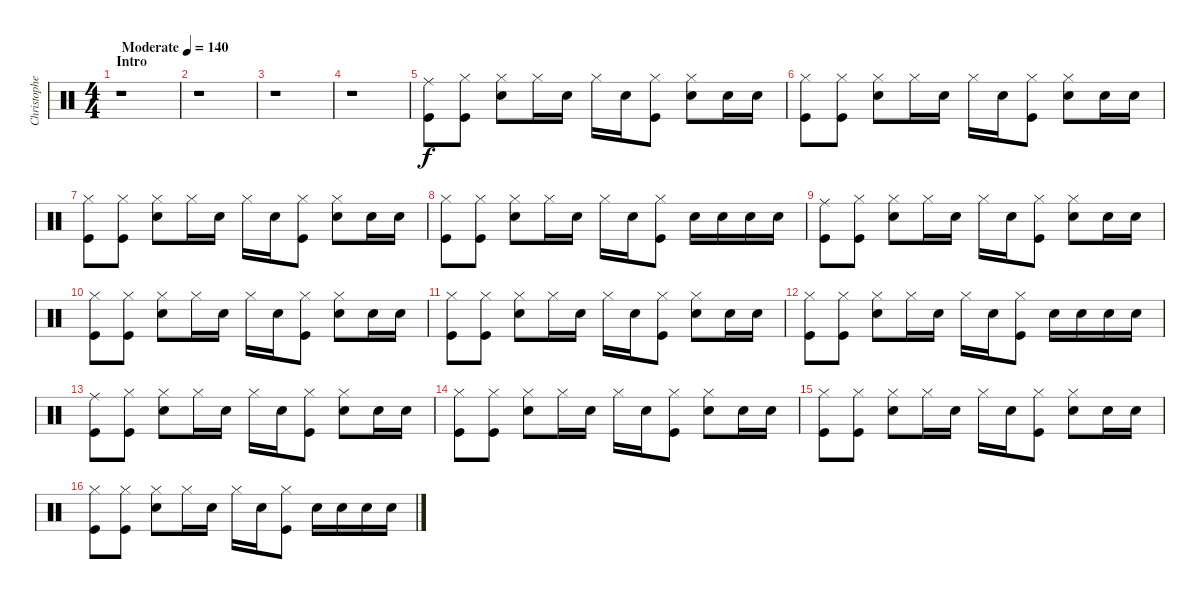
\track ("Christopher - Drums" "Christophe") {instrument percussion}
\staff {score}
\articulation defaults
\ts (4 4)
\section ("" "Intro")
\tempo (140 "Moderate")
\clef neutral
\ks c
r.1{dy f} |
r.1 |
r.1 |
r.1 |
("Ride (middle)" "Kick (hit)").8 ("Hi-Hat (closed)" "Kick (hit)").8 ("Hi-Hat (closed)" "Snare (hit) 2").8 "Hi-Hat (closed)".16 "Snare (hit) 2".16 "Hi-Hat (closed)".16 "Snare (hit) 2".16 ("Hi-Hat (closed)" "Kick (hit)").8 ("Hi-Hat (closed)" "Snare (hit) 2").8 "Snare (hit) 2".16 "Snare (hit) 2".16 |
("Hi-Hat (closed)" "Kick (hit)").8 ("Hi-Hat (closed)" "Kick (hit)").8 ("Hi-Hat (closed)" "Snare (hit) 2").8 "Hi-Hat (closed)".16 "Snare (hit) 2".16 "Hi-Hat (closed)".16 "Snare (hit) 2".16 ("Hi-Hat (closed)" "Kick (hit)").8 ("Hi-Hat (closed)" "Snare (hit) 2").8 "Snare (hit) 2".16 "Snare (hit) 2".16 |
("Hi-Hat (closed)" "Kick (hit)").8 ("Hi-Hat (closed)" "Kick (hit)").8 ("Hi-Hat (closed)" "Snare (hit) 2").8 "Hi-Hat (closed)".16 "Snare (hit) 2".16 "Hi-Hat (closed)".16 "Snare (hit) 2".16 ("Hi-Hat (closed)" "Kick (hit)").8 ("Hi-Hat (closed)" "Snare (hit) 2").8 "Snare (hit) 2".16 "Snare (hit) 2".16 |
("Hi-Hat (closed)" "Kick (hit)").8 ("Hi-Hat (closed)" "Kick (hit)").8 ("Hi-Hat (closed)" "Snare (hit) 2").8 "Hi-Hat (closed)".16 "Snare (hit) 2".16 "Hi-Hat (closed)".16 "Snare (hit) 2".16 ("Hi-Hat (closed)" "Kick (hit)").8 "Snare (hit) 2".16 "Snare (hit) 2".16 "Snare (hit) 2".16 "Snare (hit) 2".16 |
("Ride (middle)" "Kick (hit)").8 ("Hi-Hat (closed)" "Kick (hit)").8 ("Hi-Hat (closed)" "Snare (hit) 2").8 "Hi-Hat (closed)".16 "Snare (hit) 2".16 "Hi-Hat (closed)".16 "Snare (hit) 2".16 ("Hi-Hat (closed)" "Kick (hit)").8 ("Hi-Hat (closed)" "Snare (hit) 2").8 "Snare (hit) 2".16 "Snare (hit) 2".16 |
("Hi-Hat (closed)" "Kick (hit)").8 ("Hi-Hat (closed)" "Kick (hit)").8 ("Hi-Hat (closed)" "Snare (hit) 2").8 "Hi-Hat (closed)".16 "Snare (hit) 2".16 "Hi-Hat (closed)".16 "Snare (hit) 2".16 ("Hi-Hat (closed)" "Kick (hit)").8 ("Hi-Hat (closed)" "Snare (hit) 2").8 "Snare (hit) 2".16 "Snare (hit) 2".16 |
("Hi-Hat (closed)" "Kick (hit)").8 ("Hi-Hat (closed)" "Kick (hit)").8 ("Hi-Hat (closed)" "Snare (hit) 2").8 "Hi-Hat (closed)".16 "Snare (hit) 2".16 "Hi-Hat (closed)".16 "Snare (hit) 2".16 ("Hi-Hat (closed)" "Kick (hit)").8 ("Hi-Hat (closed)" "Snare (hit) 2").8 "Snare (hit) 2".16 "Snare (hit) 2".16 |
("Hi-Hat (closed)" "Kick (hit)").8 ("Hi-Hat (closed)" "Kick (hit)").8 ("Hi-Hat (closed)" "Snare (hit) 2").8 "Hi-Hat (closed)".16 "Snare (hit) 2".16 "Hi-Hat (closed)".16 "Snare (hit) 2".16 ("Hi-Hat (closed)" "Kick (hit)").8 "Snare (hit) 2".16 "Snare (hit) 2".16 "Snare (hit) 2".16 "Snare (hit) 2".16 |
("Ride (middle)" "Kick (hit)").8 ("Hi-Hat (closed)" "Kick (hit)").8 ("Hi-Hat (closed)" "Snare (hit) 2").8 "Hi-Hat (closed)".16 "Snare (hit) 2".16 "Hi-Hat (closed)".16 "Snare (hit) 2".16 ("Hi-Hat (closed)" "Kick (hit)").8 ("Hi-Hat (closed)" "Snare (hit) 2").8 "Snare (hit) 2".16 "Snare (hit) 2".16 |
("Hi-Hat (closed)" "Kick (hit)").8 ("Hi-Hat (closed)" "Kick (hit)").8 ("Hi-Hat (closed)" "Snare (hit) 2").8 "Hi-Hat (closed)".16 "Snare (hit) 2".16 "Hi-Hat (closed)".16 "Snare (hit) 2".16 ("Hi-Hat (closed)" "Kick (hit)").8 ("Hi-Hat (closed)" "Snare (hit) 2").8 "Snare (hit) 2".16 "Snare (hit) 2".16 |
("Hi-Hat (closed)" "Kick (hit)").8 ("Hi-Hat (closed)" "Kick (hit)").8 ("Hi-Hat (closed)" "Snare (hit) 2").8 "Hi-Hat (closed)".16 "Snare (hit) 2".16 "Hi-Hat (closed)".16 "Snare (hit) 2".16 ("Hi-Hat (closed)" "Kick (hit)").8 ("Hi-Hat (closed)" "Snare (hit) 2").8 "Snare (hit) 2".16 "Snare (hit) 2".16 |
("Hi-Hat (closed)" "Kick (hit)").8 ("Hi-Hat (closed)" "Kick (hit)").8 ("Hi-Hat (closed)" "Snare (hit) 2").8 "Hi-Hat (closed)".16 "Snare (hit) 2".16 "Hi-Hat (closed)".16 "Snare (hit) 2".16 ("Hi-Hat (closed)" "Kick (hit)").8 "Snare (hit) 2".16 "Snare (hit) 2".16 "Snare (hit) 2".16 "Snare (hit) 2".16
